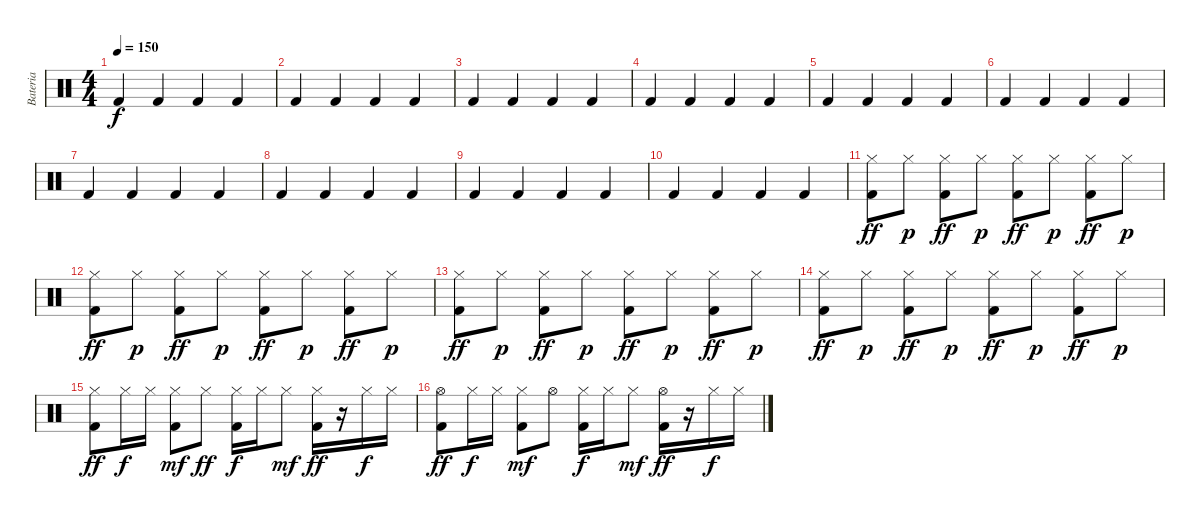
\track ("Bateria" "Bateria") {instrument percussion}
\staff {score}
\articulation defaults
\ts (4 4)
\tempo 150
\clef neutral
\ks c "Kick (hit) 2".4{dy f} "Kick (hit) 2".4 "Kick (hit) 2".4 "Kick (hit) 2".4
|
"Kick (hit) 2".4 "Kick (hit) 2".4 "Kick (hit) 2".4 "Kick (hit) 2".4 |
"Kick (hit) 2".4 "Kick (hit) 2".4 "Kick (hit) 2".4 "Kick (hit) 2".4 |
"Kick (hit) 2".4 "Kick (hit) 2".4 "Kick (hit) 2".4 "Kick (hit) 2".4 |
"Kick (hit) 2".4 "Kick (hit) 2".4 "Kick (hit) 2".4 "Kick (hit) 2".4 |
"Kick (hit) 2".4 "Kick (hit) 2".4 "Kick (hit) 2".4 "Kick (hit) 2".4 |
"Kick (hit) 2".4 "Kick (hit) 2".4 "Kick (hit) 2".4 "Kick (hit) 2".4 |
"Kick (hit) 2".4 "Kick (hit) 2".4 "Kick (hit) 2".4 "Kick (hit) 2".4 |
"Kick (hit) 2".4 "Kick (hit) 2".4 "Kick (hit) 2".4 "Kick (hit) 2".4 |
"Kick (hit) 2".4 "Kick (hit) 2".4 "Kick (hit) 2".4 "Kick (hit) 2".4 |
("Hi-Hat (closed)" "Kick (hit) 2").8{dy ff} "Hi-Hat (closed)".8{dy p} ("Hi-Hat (closed)" "Kick (hit) 2").8{dy ff} "Hi-Hat (closed)".8{dy p} ("Hi-Hat (closed)" "Kick (hit) 2").8{dy ff} "Hi-Hat (closed)".8{dy p} ("Hi-Hat (closed)" "Kick (hit) 2").8{dy ff} "Hi-Hat (closed)".8{dy p} |
("Hi-Hat (closed)" "Kick (hit) 2").8{dy ff} "Hi-Hat (closed)".8{dy p} ("Hi-Hat (closed)" "Kick (hit) 2").8{dy ff} "Hi-Hat (closed)".8{dy p} ("Hi-Hat (closed)" "Kick (hit) 2").8{dy ff} "Hi-Hat (closed)".8{dy p} ("Hi-Hat (closed)" "Kick (hit) 2").8{dy ff} "Hi-Hat (closed)".8{dy p} |
("Hi-Hat (closed)" "Kick (hit) 2").8{dy ff} "Hi-Hat (closed)".8{dy p} ("Hi-Hat (closed)" "Kick (hit) 2").8{dy ff} "Hi-Hat (closed)".8{dy p} ("Hi-Hat (closed)" "Kick (hit) 2").8{dy ff} "Hi-Hat (closed)".8{dy p} ("Hi-Hat (closed)" "Kick (hit) 2").8{dy ff} "Hi-Hat (closed)".8{dy p} |
("Hi-Hat (closed)" "Kick (hit) 2").8{dy ff} "Hi-Hat (closed)".8{dy p} ("Hi-Hat (closed)" "Kick (hit) 2").8{dy ff} "Hi-Hat (closed)".8{dy p} ("Hi-Hat (closed)" "Kick (hit) 2").8{dy ff} "Hi-Hat (closed)".8{dy p} ("Hi-Hat (closed)" "Kick (hit) 2").8{dy ff} "Hi-Hat (closed)".8{dy p} |
("Hi-Hat (closed)" "Kick (hit) 2").8{dy ff} "Hi-Hat (closed)".16{dy f} "Hi-Hat (closed)".16 ("Hi-Hat (closed)" "Kick (hit) 2").8{dy mf} "Hi-Hat (closed)".8{dy ff} ("Hi-Hat (closed)" "Kick (hit) 2").16{dy f} "Hi-Hat (closed)".16 "Hi-Hat (closed)".8{dy mf} ("Hi-Hat (closed)" "Kick (hit) 2").16{dy ff} r.16 "Hi-Hat (closed)".16{dy f} "Hi-Hat (closed)".16 |
("Hi-Hat (open)" "Kick (hit) 2").8{dy ff} "Hi-Hat (closed)".16{dy f} "Hi-Hat (closed)".16 ("Hi-Hat (closed)" "Kick (hit) 2").8{dy mf} "Hi-Hat (open)".8 ("Hi-Hat (closed)" "Kick (hit) 2").16{dy f} "Hi-Hat (closed)".16 "Hi-Hat (closed)".8{dy mf} ("Hi-Hat (open)" "Kick (hit) 2").16{dy ff} r.16 "Hi-Hat (closed)".16{dy f} "Hi-Hat (closed)".16
